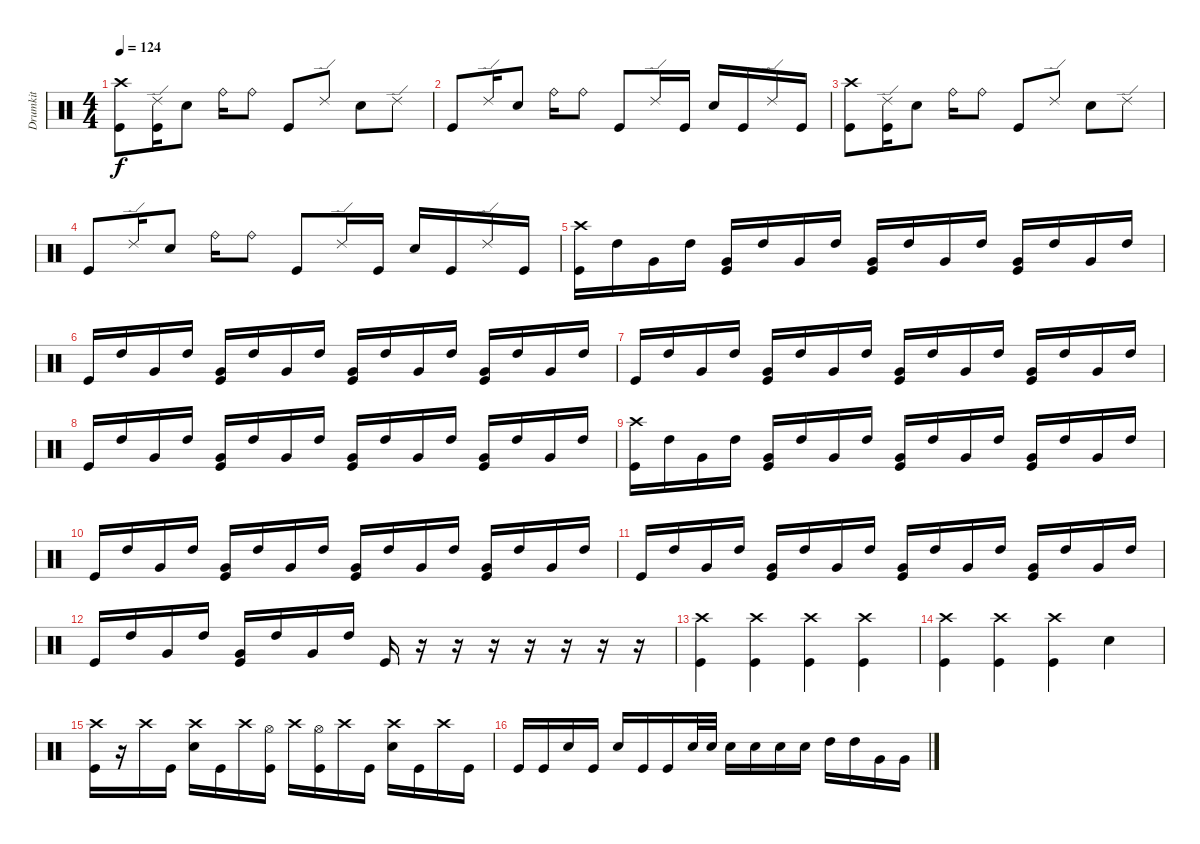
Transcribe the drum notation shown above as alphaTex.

\track ("Drumkit" "Drumkit") {instrument percussion}
\staff {score}
\articulation defaults
\ts (4 4)
\tempo 124
\clef neutral
\ks c
("Kick (hit)" "Crash high (hit)").8{dy f} ("Ride (edge) 2" "Kick (hit)").16 "Snare (hit) 2".8 "Ride (bell)".16 "Ride (bell)".8 "Kick (hit)".8 "Ride (edge) 2".8 "Snare (hit) 2".8 "Ride (edge) 2".8 |
"Kick (hit)".8 "Ride (edge) 2".16 "Snare (hit) 2".8 "Ride (bell)".16 "Ride (bell)".8 "Kick (hit)".8 "Ride (edge) 2".16 "Kick (hit)".16 "Snare (hit) 2".16 "Kick (hit)".16 "Ride (edge) 2".16 "Kick (hit)".16 |
("Kick (hit)" "Crash high (hit)").8 ("Ride (edge) 2" "Kick (hit)").16 "Snare (hit) 2".8 "Ride (bell)".16 "Ride (bell)".8 "Kick (hit)".8 "Ride (edge) 2".8 "Snare (hit) 2".8 "Ride (edge) 2".8 |
"Kick (hit)".8 "Ride (edge) 2".16 "Snare (hit) 2".8 "Ride (bell)".16 "Ride (bell)".8 "Kick (hit)".8 "Ride (edge) 2".16 "Kick (hit)".16 "Snare (hit) 2".16 "Kick (hit)".16 "Ride (edge) 2".16 "Kick (hit)".16 |
("Kick (hit)" "Crash high (hit)").16 "High Tom (hit)".16 "Very Low Tom (hit)".16 "High Tom (hit)".16 ("Very Low Tom (hit)" "Kick (hit)").16 "High Tom (hit)".16 "Very Low Tom (hit)".16 "High Tom (hit)".16 ("Kick (hit)" "Very Low Tom (hit)").16 "High Tom (hit)".16 "Very Low Tom (hit)".16 "High Tom (hit)".16 ("Very Low Tom (hit)" "Kick (hit)").16 "High Tom (hit)".16 "Very Low Tom (hit)".16 "High Tom (hit)".16 |
"Kick (hit)".16 "High Tom (hit)".16 "Very Low Tom (hit)".16 "High Tom (hit)".16 ("Very Low Tom (hit)" "Kick (hit)").16 "High Tom (hit)".16 "Very Low Tom (hit)".16 "High Tom (hit)".16 ("Kick (hit)" "Very Low Tom (hit)").16 "High Tom (hit)".16 "Very Low Tom (hit)".16 "High Tom (hit)".16 ("Very Low Tom (hit)" "Kick (hit)").16 "High Tom (hit)".16 "Very Low Tom (hit)".16 "High Tom (hit)".16 |
"Kick (hit)".16 "High Tom (hit)".16 "Very Low Tom (hit)".16 "High Tom (hit)".16 ("Very Low Tom (hit)" "Kick (hit)").16 "High Tom (hit)".16 "Very Low Tom (hit)".16 "High Tom (hit)".16 ("Kick (hit)" "Very Low Tom (hit)").16 "High Tom (hit)".16 "Very Low Tom (hit)".16 "High Tom (hit)".16 ("Very Low Tom (hit)" "Kick (hit)").16 "High Tom (hit)".16 "Very Low Tom (hit)".16 "High Tom (hit)".16 |
"Kick (hit)".16 "High Tom (hit)".16 "Very Low Tom (hit)".16 "High Tom (hit)".16 ("Very Low Tom (hit)" "Kick (hit)").16 "High Tom (hit)".16 "Very Low Tom (hit)".16 "High Tom (hit)".16 ("Kick (hit)" "Very Low Tom (hit)").16 "High Tom (hit)".16 "Very Low Tom (hit)".16 "High Tom (hit)".16 ("Very Low Tom (hit)" "Kick (hit)").16 "High Tom (hit)".16 "Very Low Tom (hit)".16 "High Tom (hit)".16 |
("Kick (hit)" "Crash high (hit)").16 "High Tom (hit)".16 "Very Low Tom (hit)".16 "High Tom (hit)".16 ("Very Low Tom (hit)" "Kick (hit)").16 "High Tom (hit)".16 "Very Low Tom (hit)".16 "High Tom (hit)".16 ("Kick (hit)" "Very Low Tom (hit)").16 "High Tom (hit)".16 "Very Low Tom (hit)".16 "High Tom (hit)".16 ("Very Low Tom (hit)" "Kick (hit)").16 "High Tom (hit)".16 "Very Low Tom (hit)".16 "High Tom (hit)".16 |
"Kick (hit)".16 "High Tom (hit)".16 "Very Low Tom (hit)".16 "High Tom (hit)".16 ("Very Low Tom (hit)" "Kick (hit)").16 "High Tom (hit)".16 "Very Low Tom (hit)".16 "High Tom (hit)".16 ("Kick (hit)" "Very Low Tom (hit)").16 "High Tom (hit)".16 "Very Low Tom (hit)".16 "High Tom (hit)".16 ("Very Low Tom (hit)" "Kick (hit)").16 "High Tom (hit)".16 "Very Low Tom (hit)".16 "High Tom (hit)".16 |
"Kick (hit)".16 "High Tom (hit)".16 "Very Low Tom (hit)".16 "High Tom (hit)".16 ("Very Low Tom (hit)" "Kick (hit)").16 "High Tom (hit)".16 "Very Low Tom (hit)".16 "High Tom (hit)".16 ("Kick (hit)" "Very Low Tom (hit)").16 "High Tom (hit)".16 "Very Low Tom (hit)".16 "High Tom (hit)".16 ("Very Low Tom (hit)" "Kick (hit)").16 "High Tom (hit)".16 "Very Low Tom (hit)".16 "High Tom (hit)".16 |
"Kick (hit)".16 "High Tom (hit)".16 "Very Low Tom (hit)".16 "High Tom (hit)".16 ("Very Low Tom (hit)" "Kick (hit)").16 "High Tom (hit)".16 "Very Low Tom (hit)".16 "High Tom (hit)".16 "Kick (hit)".16 r.16 r.16 r.16 r.16 r.16 r.16 r.16 |
("Kick (hit)" "Crash high (hit)").4 ("Crash high (hit)" "Kick (hit)").4 ("Crash high (hit)" "Kick (hit)").4 ("Crash high (hit)" "Kick (hit)").4 |
("Kick (hit)" "Crash high (hit)").4 ("Crash high (hit)" "Kick (hit)").4 ("Crash high (hit)" "Kick (hit)").4 "Snare (hit) 2".4 |
("Crash high (hit)" "Kick (hit)").16 r.16 "Crash high (hit)".16 "Kick (hit)".16 ("Crash high (hit)" "Snare (hit) 2").16 "Kick (hit)".16 "Crash high (hit)".16 ("Kick (hit)" "Hi-Hat (open)").16 "Crash high (hit)".16 ("Kick (hit)" "Hi-Hat (open)").16 "Crash high (hit)".16 "Kick (hit)".16 ("Crash high (hit)" "Snare (hit) 2").16 "Kick (hit)".16 "Crash high (hit)".16 "Kick (hit)".16 |
"Kick (hit)".16 "Kick (hit)".16 "Snare (hit) 2".16 "Kick (hit)".16 "Snare (hit) 2".16 "Kick (hit)".16 "Kick (hit)".16 "Snare (hit) 2".32 "Snare (hit) 2".32 "Snare (hit) 2".16 "Snare (hit) 2".16 "Snare (hit) 2".16 "Snare (hit) 2".16 "High Tom (hit)".16 "High Tom (hit)".16 "Very Low Tom (hit)".16 "Very Low Tom (hit)".16
